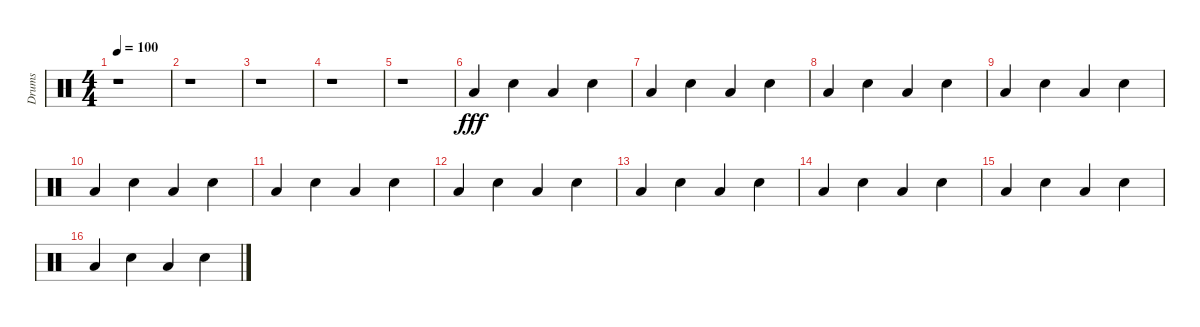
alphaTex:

\track ("Drums" "Drums") {instrument percussion}
\staff {score}
\articulation defaults
\ts (4 4)
\tempo 100
\clef neutral
\ks c
r.1{dy fff} |
r.1 |
r.1 |
r.1 |
r.1 |
"Low Tom (hit)".4 "Hand Clap (hit)".4 "Low Tom (hit)".4 "Hand Clap (hit)".4 |
"Low Tom (hit)".4 "Hand Clap (hit)".4 "Low Tom (hit)".4 "Hand Clap (hit)".4 |
"Low Tom (hit)".4 "Hand Clap (hit)".4 "Low Tom (hit)".4 "Hand Clap (hit)".4 |
"Low Tom (hit)".4 "Hand Clap (hit)".4 "Low Tom (hit)".4 "Hand Clap (hit)".4 |
"Low Tom (hit)".4 "Hand Clap (hit)".4 "Low Tom (hit)".4 "Hand Clap (hit)".4 |
"Low Tom (hit)".4 "Hand Clap (hit)".4 "Low Tom (hit)".4 "Hand Clap (hit)".4 |
"Low Tom (hit)".4 "Hand Clap (hit)".4 "Low Tom (hit)".4 "Hand Clap (hit)".4 |
"Low Tom (hit)".4 "Hand Clap (hit)".4 "Low Tom (hit)".4 "Hand Clap (hit)".4 |
"Low Tom (hit)".4 "Hand Clap (hit)".4 "Low Tom (hit)".4 "Hand Clap (hit)".4 |
"Low Tom (hit)".4 "Hand Clap (hit)".4 "Low Tom (hit)".4 "Hand Clap (hit)".4 |
"Low Tom (hit)".4 "Hand Clap (hit)".4 "Low Tom (hit)".4 "Hand Clap (hit)".4
